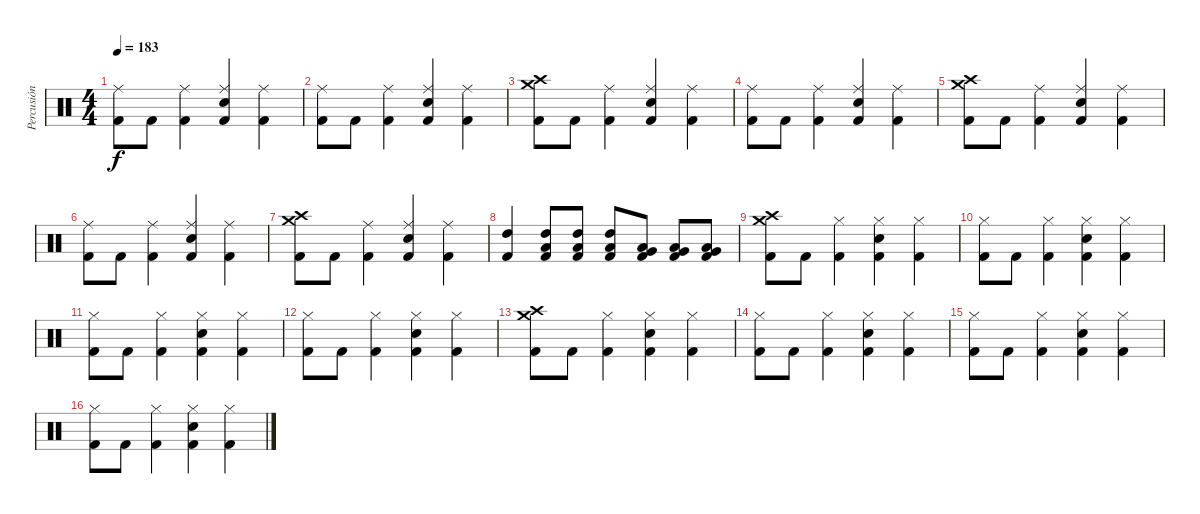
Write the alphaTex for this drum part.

\track ("Percusión" "Percusión") {instrument percussion}
\staff {score}
\articulation defaults
\ts (4 4)
\tempo 183
\clef neutral
\ks c
("Kick (hit) 2" "Ride (middle)").8{dy f} "Kick (hit) 2".8 ("Kick (hit) 2" "Ride (middle)").4 ("Kick (hit) 2" "Electric Snare (hit)" "Ride (middle)").4 ("Kick (hit) 2" "Ride (middle)").4 |
("Kick (hit) 2" "Ride (middle)").8 "Kick (hit) 2".8 ("Kick (hit) 2" "Ride (middle)").4 ("Kick (hit) 2" "Electric Snare (hit)" "Ride (middle)").4 ("Kick (hit) 2" "Ride (middle)").4 |
("Kick (hit) 2" "Crash medium (hit)" "Crash high (hit)").8 "Kick (hit) 2".8 ("Kick (hit) 2" "Ride (middle)").4 ("Kick (hit) 2" "Electric Snare (hit)" "Ride (middle)").4 ("Kick (hit) 2" "Ride (middle)").4 |
("Kick (hit) 2" "Ride (middle)").8 "Kick (hit) 2".8 ("Kick (hit) 2" "Ride (middle)").4 ("Kick (hit) 2" "Electric Snare (hit)" "Ride (middle)").4 ("Kick (hit) 2" "Ride (middle)").4 |
("Kick (hit) 2" "Crash medium (hit)" "Crash high (hit)").8 "Kick (hit) 2".8 ("Kick (hit) 2" "Ride (middle)").4 ("Kick (hit) 2" "Electric Snare (hit)" "Ride (middle)").4 ("Kick (hit) 2" "Ride (middle)").4 |
("Kick (hit) 2" "Ride (middle)").8 "Kick (hit) 2".8 ("Kick (hit) 2" "Ride (middle)").4 ("Kick (hit) 2" "Electric Snare (hit)" "Ride (middle)").4 ("Kick (hit) 2" "Ride (middle)").4 |
("Kick (hit) 2" "Crash medium (hit)" "Crash high (hit)").8 "Kick (hit) 2".8 ("Kick (hit) 2" "Ride (middle)").4 ("Kick (hit) 2" "Electric Snare (hit)" "Ride (middle)").4 ("Kick (hit) 2" "Ride (middle)").4 |
("Kick (hit) 2" "High Tom (hit)").4 ("Kick (hit) 2" "Low Tom (hit)" "High Tom (hit)").8 ("Kick (hit) 2" "Low Tom (hit)" "High Tom (hit)").8 ("Kick (hit) 2" "Low Tom (hit)" "High Tom (hit)").8 ("Kick (hit) 2" "Very Low Tom (hit)" "Low Floor Tom (hit)").8 ("Kick (hit) 2" "Very Low Tom (hit)" "Low Floor Tom (hit)").8 ("Kick (hit) 2" "Very Low Tom (hit)" "Low Floor Tom (hit)").8 |
("Kick (hit) 2" "Crash medium (hit)" "Crash high (hit)").8 "Kick (hit) 2".8 ("Kick (hit) 2" "Hi-Hat (closed)").4 ("Kick (hit) 2" "Electric Snare (hit)" "Hi-Hat (closed)").4 ("Kick (hit) 2" "Hi-Hat (closed)").4 |
("Kick (hit) 2" "Hi-Hat (closed)").8 "Kick (hit) 2".8 ("Kick (hit) 2" "Hi-Hat (closed)").4 ("Kick (hit) 2" "Electric Snare (hit)" "Hi-Hat (closed)").4 ("Kick (hit) 2" "Hi-Hat (closed)").4 |
("Kick (hit) 2" "Hi-Hat (closed)").8 "Kick (hit) 2".8 ("Kick (hit) 2" "Hi-Hat (closed)").4 ("Kick (hit) 2" "Electric Snare (hit)" "Hi-Hat (closed)").4 ("Kick (hit) 2" "Hi-Hat (closed)").4 |
("Kick (hit) 2" "Hi-Hat (closed)").8 "Kick (hit) 2".8 ("Kick (hit) 2" "Hi-Hat (closed)").4 ("Kick (hit) 2" "Electric Snare (hit)" "Hi-Hat (closed)").4 ("Kick (hit) 2" "Hi-Hat (closed)").4 |
("Kick (hit) 2" "Crash medium (hit)" "Crash high (hit)").8 "Kick (hit) 2".8 ("Kick (hit) 2" "Hi-Hat (closed)").4 ("Kick (hit) 2" "Electric Snare (hit)" "Hi-Hat (closed)").4 ("Kick (hit) 2" "Hi-Hat (closed)").4 |
("Kick (hit) 2" "Hi-Hat (closed)").8 "Kick (hit) 2".8 ("Kick (hit) 2" "Hi-Hat (closed)").4 ("Kick (hit) 2" "Electric Snare (hit)" "Hi-Hat (closed)").4 ("Kick (hit) 2" "Hi-Hat (closed)").4 |
("Kick (hit) 2" "Hi-Hat (closed)").8 "Kick (hit) 2".8 ("Kick (hit) 2" "Hi-Hat (closed)").4 ("Kick (hit) 2" "Electric Snare (hit)" "Hi-Hat (closed)").4 ("Kick (hit) 2" "Hi-Hat (closed)").4 |
("Kick (hit) 2" "Hi-Hat (closed)").8 "Kick (hit) 2".8 ("Kick (hit) 2" "Hi-Hat (closed)").4 ("Kick (hit) 2" "Electric Snare (hit)" "Hi-Hat (closed)").4 ("Kick (hit) 2" "Hi-Hat (closed)").4
